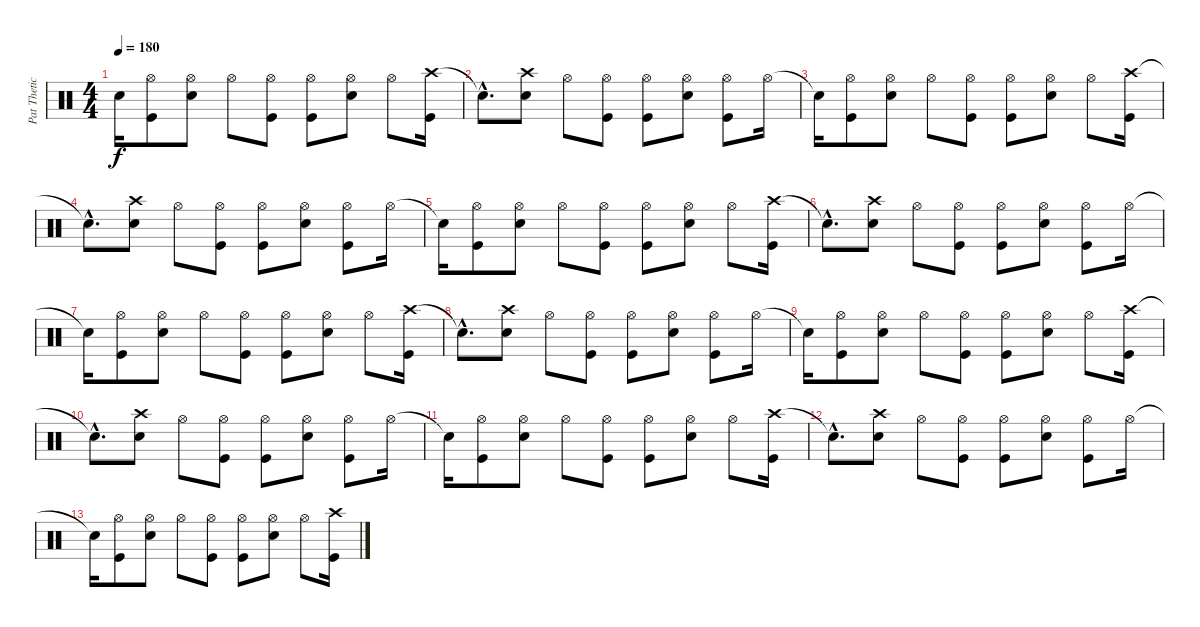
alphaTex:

\track ("Pat Thetic" "Pat Thetic") {instrument percussion}
\staff {score}
\articulation defaults
\ts (4 4)
\tempo 180
\clef neutral
\ks c "Snare (hit)"{t}.16{dy f}
("Hi-Hat (open)" "Kick (hit)").8 ("Hi-Hat (open)" "Electric Snare (hit)").8 "Hi-Hat (open)".8 ("Hi-Hat (open)" "Kick (hit)").8 ("Hi-Hat (open)" "Kick (hit)").8 ("Hi-Hat (open)" "Electric Snare (hit)").8 "Hi-Hat (open)".8 ("Crash high (hit)" "Kick (hit)").16 |
"Snare (hit)"{hac t}.8{d} ("Crash high (hit)" "Electric Snare (hit)").8 "Hi-Hat (open)".8 ("Hi-Hat (open)" "Kick (hit)").8 ("Hi-Hat (open)" "Kick (hit)").8 ("Hi-Hat (open)" "Electric Snare (hit)").8 ("Hi-Hat (open)" "Kick (hit)").8 "Hi-Hat (open)".16 |
"Snare (hit)"{t}.16 ("Hi-Hat (open)" "Kick (hit)").8 ("Hi-Hat (open)" "Electric Snare (hit)").8 "Hi-Hat (open)".8 ("Hi-Hat (open)" "Kick (hit)").8 ("Hi-Hat (open)" "Kick (hit)").8 ("Hi-Hat (open)" "Electric Snare (hit)").8 "Hi-Hat (open)".8 ("Crash high (hit)" "Kick (hit)").16 |
"Snare (hit)"{hac t}.8{d} ("Crash high (hit)" "Electric Snare (hit)").8 "Hi-Hat (open)".8 ("Hi-Hat (open)" "Kick (hit)").8 ("Hi-Hat (open)" "Kick (hit)").8 ("Hi-Hat (open)" "Electric Snare (hit)").8 ("Hi-Hat (open)" "Kick (hit)").8 "Hi-Hat (open)".16 |
"Snare (hit)"{t}.16 ("Hi-Hat (open)" "Kick (hit)").8 ("Hi-Hat (open)" "Electric Snare (hit)").8 "Hi-Hat (open)".8 ("Hi-Hat (open)" "Kick (hit)").8 ("Hi-Hat (open)" "Kick (hit)").8 ("Hi-Hat (open)" "Electric Snare (hit)").8 "Hi-Hat (open)".8 ("Crash high (hit)" "Kick (hit)").16 |
"Snare (hit)"{hac t}.8{d} ("Crash high (hit)" "Electric Snare (hit)").8 "Hi-Hat (open)".8 ("Hi-Hat (open)" "Kick (hit)").8 ("Hi-Hat (open)" "Kick (hit)").8 ("Hi-Hat (open)" "Electric Snare (hit)").8 ("Hi-Hat (open)" "Kick (hit)").8 "Hi-Hat (open)".16 |
"Snare (hit)"{t}.16 ("Hi-Hat (open)" "Kick (hit)").8 ("Hi-Hat (open)" "Electric Snare (hit)").8 "Hi-Hat (open)".8 ("Hi-Hat (open)" "Kick (hit)").8 ("Hi-Hat (open)" "Kick (hit)").8 ("Hi-Hat (open)" "Electric Snare (hit)").8 "Hi-Hat (open)".8 ("Crash high (hit)" "Kick (hit)").16 |
"Snare (hit)"{hac t}.8{d} ("Crash high (hit)" "Electric Snare (hit)").8 "Hi-Hat (open)".8 ("Hi-Hat (open)" "Kick (hit)").8 ("Hi-Hat (open)" "Kick (hit)").8 ("Hi-Hat (open)" "Electric Snare (hit)").8 ("Hi-Hat (open)" "Kick (hit)").8 "Hi-Hat (open)".16 |
"Snare (hit)"{t}.16 ("Hi-Hat (open)" "Kick (hit)").8 ("Hi-Hat (open)" "Electric Snare (hit)").8 "Hi-Hat (open)".8 ("Hi-Hat (open)" "Kick (hit)").8 ("Hi-Hat (open)" "Kick (hit)").8 ("Hi-Hat (open)" "Electric Snare (hit)").8 "Hi-Hat (open)".8 ("Crash high (hit)" "Kick (hit)").16 |
"Snare (hit)"{hac t}.8{d} ("Crash high (hit)" "Electric Snare (hit)").8 "Hi-Hat (open)".8 ("Hi-Hat (open)" "Kick (hit)").8 ("Hi-Hat (open)" "Kick (hit)").8 ("Hi-Hat (open)" "Electric Snare (hit)").8 ("Hi-Hat (open)" "Kick (hit)").8 "Hi-Hat (open)".16 |
"Snare (hit)"{t}.16 ("Hi-Hat (open)" "Kick (hit)").8 ("Hi-Hat (open)" "Electric Snare (hit)").8 "Hi-Hat (open)".8 ("Hi-Hat (open)" "Kick (hit)").8 ("Hi-Hat (open)" "Kick (hit)").8 ("Hi-Hat (open)" "Electric Snare (hit)").8 "Hi-Hat (open)".8 ("Crash high (hit)" "Kick (hit)").16 |
"Snare (hit)"{hac t}.8{d} ("Crash high (hit)" "Electric Snare (hit)").8 "Hi-Hat (open)".8 ("Hi-Hat (open)" "Kick (hit)").8 ("Hi-Hat (open)" "Kick (hit)").8 ("Hi-Hat (open)" "Electric Snare (hit)").8 ("Hi-Hat (open)" "Kick (hit)").8 "Hi-Hat (open)".16 |
"Snare (hit)"{t}.16 ("Hi-Hat (open)" "Kick (hit)").8 ("Hi-Hat (open)" "Electric Snare (hit)").8 "Hi-Hat (open)".8 ("Hi-Hat (open)" "Kick (hit)").8 ("Hi-Hat (open)" "Kick (hit)").8 ("Hi-Hat (open)" "Electric Snare (hit)").8 "Hi-Hat (open)".8 ("Crash high (hit)" "Kick (hit)").16
